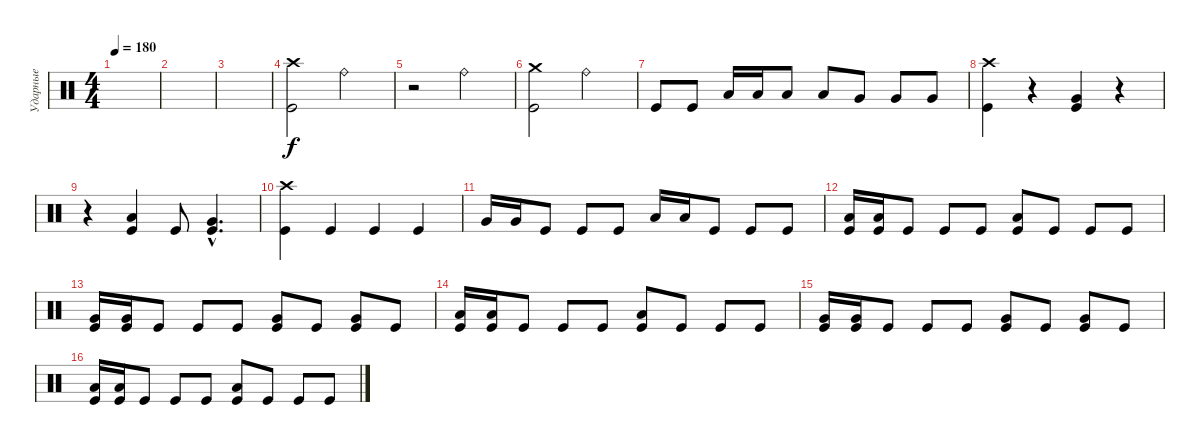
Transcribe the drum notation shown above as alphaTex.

\track ("Ударные" "Ударные") {instrument percussion}
\staff {score}
\articulation defaults
\ts (4 4)
\tempo 180
\clef neutral
\ks c
|
|
|
("Crash high (hit)" "Kick (hit)").2 "Ride (bell)".2 |
r.2 "Ride (bell)".2 |
("Crash medium (hit)" "Kick (hit)").2 "Ride (bell)".2 |
"Kick (hit)".8 "Kick (hit)".8 "Low Tom (hit)".16 "Low Tom (hit)".16 "Low Tom (hit)".8 "Low Tom (hit)".8 "Very Low Tom (hit)".8 "Very Low Tom (hit)".8 "Very Low Tom (hit)".8 |
("Crash high (hit)" "Kick (hit)").4 r.4 ("Very Low Tom (hit)" "Kick (hit)").4 r.4 |
r.4 ("Low Tom (hit)" "Kick (hit)").4 "Kick (hit)".8 ("Very Low Tom (hit)"{hac} "Kick (hit)"{hac}).4{d} |
("Crash high (hit)" "Kick (hit)").4 "Kick (hit)".4 "Kick (hit)".4 "Kick (hit)".4 |
"Very Low Tom (hit)".16 "Very Low Tom (hit)".16 "Kick (hit)".8 "Kick (hit)".8 "Kick (hit)".8 "Low Tom (hit)".16 "Low Tom (hit)".16 "Kick (hit)".8 "Kick (hit)".8 "Kick (hit)".8 |
("Low Tom (hit)" "Kick (hit)").16 ("Low Tom (hit)" "Kick (hit)").16 "Kick (hit)".8 "Kick (hit)".8 "Kick (hit)".8 ("Low Tom (hit)" "Kick (hit)").8 "Kick (hit)".8 "Kick (hit)".8 "Kick (hit)".8 |
("Very Low Tom (hit)" "Kick (hit)").16 ("Very Low Tom (hit)" "Kick (hit)").16 "Kick (hit)".8 "Kick (hit)".8 "Kick (hit)".8 ("Very Low Tom (hit)" "Kick (hit)").8 "Kick (hit)".8 ("Very Low Tom (hit)" "Kick (hit)").8 "Kick (hit)".8 |
("Low Tom (hit)" "Kick (hit)").16 ("Low Tom (hit)" "Kick (hit)").16 "Kick (hit)".8 "Kick (hit)".8 "Kick (hit)".8 ("Low Tom (hit)" "Kick (hit)").8 "Kick (hit)".8 "Kick (hit)".8 "Kick (hit)".8 |
("Very Low Tom (hit)" "Kick (hit)").16 ("Very Low Tom (hit)" "Kick (hit)").16 "Kick (hit)".8 "Kick (hit)".8 "Kick (hit)".8 ("Very Low Tom (hit)" "Kick (hit)").8 "Kick (hit)".8 ("Very Low Tom (hit)" "Kick (hit)").8 "Kick (hit)".8 |
("Low Tom (hit)" "Kick (hit)").16 ("Low Tom (hit)" "Kick (hit)").16 "Kick (hit)".8 "Kick (hit)".8 "Kick (hit)".8 ("Low Tom (hit)" "Kick (hit)").8 "Kick (hit)".8 "Kick (hit)".8 "Kick (hit)".8
